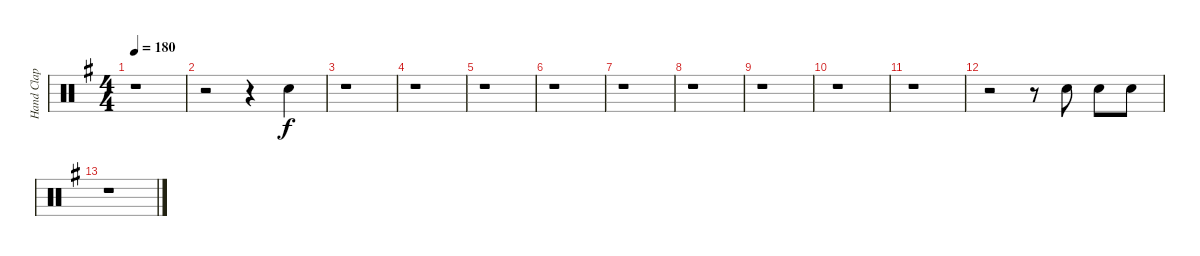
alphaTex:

\track ("Hand Clap" "Hand Clap") {instrument percussion}
\staff {score}
\articulation defaults
\ts (4 4)
\tempo 180
\clef neutral
\ks g
r.1{dy f} |
r.2 r.4 "Hand Clap (hit)".4 |
r.1 |
r.1 |
r.1 |
r.1 |
r.1 |
r.1 |
r.1 |
r.1 |
r.1 |
r.2 r.8 "Hand Clap (hit)".8 "Hand Clap (hit)".8 "Hand Clap (hit)".8 |
r.1
